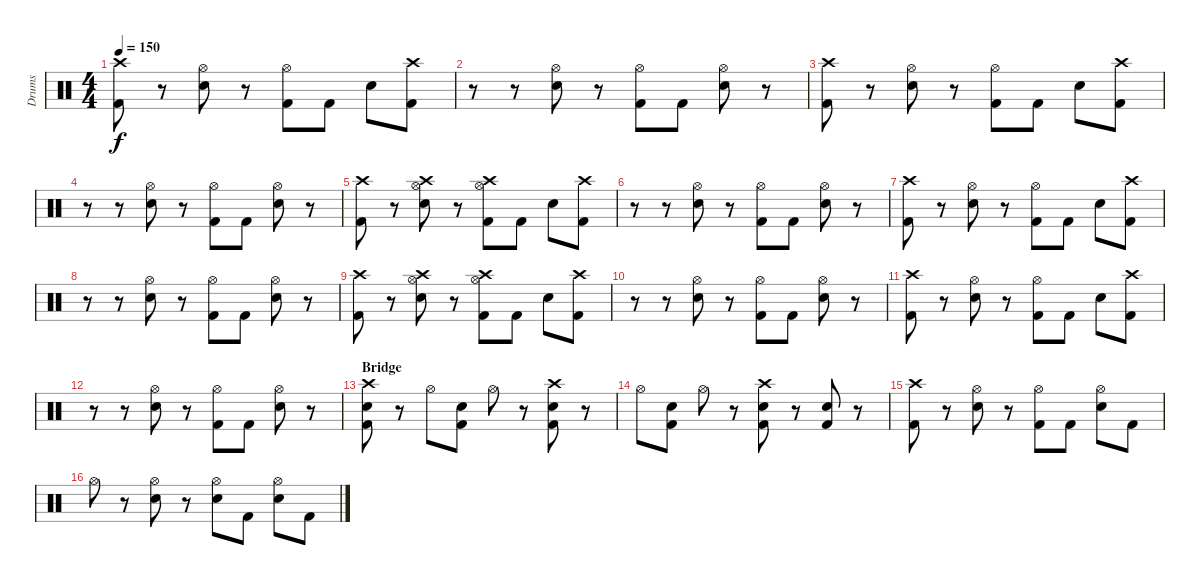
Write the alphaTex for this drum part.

\track ("Drums" "Drums") {instrument percussion}
\staff {score}
\articulation defaults
\ts (4 4)
\tempo 150
\clef neutral
\ks c
("Crash high (hit)" "Kick (hit) 2").8{dy f} r.8 ("Hi-Hat (open)" "Electric Snare (hit)").8 r.8 ("Hi-Hat (open)" "Kick (hit) 2").8 "Kick (hit) 2".8 "Electric Snare (hit)".8 ("Crash high (hit)" "Kick (hit) 2").8 |
r.8 r.8 ("Hi-Hat (open)" "Electric Snare (hit)").8 r.8 ("Hi-Hat (open)" "Kick (hit) 2").8 "Kick (hit) 2".8 ("Hi-Hat (open)" "Electric Snare (hit)").8 r.8 |
("Crash high (hit)" "Kick (hit) 2").8 r.8 ("Hi-Hat (open)" "Electric Snare (hit)").8 r.8 ("Hi-Hat (open)" "Kick (hit) 2").8 "Kick (hit) 2".8 "Electric Snare (hit)".8 ("Crash high (hit)" "Kick (hit) 2").8 |
r.8 r.8 ("Hi-Hat (open)" "Electric Snare (hit)").8 r.8 ("Hi-Hat (open)" "Kick (hit) 2").8 "Kick (hit) 2".8 ("Hi-Hat (open)" "Electric Snare (hit)").8 r.8 |
("Crash high (hit)" "Kick (hit) 2").8 r.8 ("Crash high (hit)" "Hi-Hat (open)" "Electric Snare (hit)").8 r.8 ("Crash high (hit)" "Hi-Hat (open)" "Kick (hit) 2").8 "Kick (hit) 2".8 "Electric Snare (hit)".8 ("Crash high (hit)" "Kick (hit) 2").8 |
r.8 r.8 ("Hi-Hat (open)" "Electric Snare (hit)").8 r.8 ("Hi-Hat (open)" "Kick (hit) 2").8 "Kick (hit) 2".8 ("Hi-Hat (open)" "Electric Snare (hit)").8 r.8 |
("Crash high (hit)" "Kick (hit) 2").8 r.8 ("Hi-Hat (open)" "Electric Snare (hit)").8 r.8 ("Hi-Hat (open)" "Kick (hit) 2").8 "Kick (hit) 2".8 "Electric Snare (hit)".8 ("Crash high (hit)" "Kick (hit) 2").8 |
r.8 r.8 ("Hi-Hat (open)" "Electric Snare (hit)").8 r.8 ("Hi-Hat (open)" "Kick (hit) 2").8 "Kick (hit) 2".8 ("Hi-Hat (open)" "Electric Snare (hit)").8 r.8 |
("Crash high (hit)" "Kick (hit) 2").8 r.8 ("Crash high (hit)" "Hi-Hat (open)" "Electric Snare (hit)").8 r.8 ("Crash high (hit)" "Hi-Hat (open)" "Kick (hit) 2").8 "Kick (hit) 2".8 "Electric Snare (hit)".8 ("Crash high (hit)" "Kick (hit) 2").8 |
r.8 r.8 ("Hi-Hat (open)" "Electric Snare (hit)").8 r.8 ("Hi-Hat (open)" "Kick (hit) 2").8 "Kick (hit) 2".8 ("Hi-Hat (open)" "Electric Snare (hit)").8 r.8 |
("Crash high (hit)" "Kick (hit) 2").8 r.8 ("Hi-Hat (open)" "Electric Snare (hit)").8 r.8 ("Hi-Hat (open)" "Kick (hit) 2").8 "Kick (hit) 2".8 "Electric Snare (hit)".8 ("Crash high (hit)" "Kick (hit) 2").8 |
r.8 r.8 ("Hi-Hat (open)" "Electric Snare (hit)").8 r.8 ("Hi-Hat (open)" "Kick (hit) 2").8 "Kick (hit) 2".8 ("Hi-Hat (open)" "Electric Snare (hit)").8 r.8 |
\section ("" "Bridge")
("Crash high (hit)" "Electric Snare (hit)" "Kick (hit) 2").8 r.8 "Hi-Hat (open)".8 ("Electric Snare (hit)" "Kick (hit) 2").8 "Hi-Hat (open)".8 r.8 ("Crash high (hit)" "Electric Snare (hit)" "Kick (hit) 2").8 r.8 |
"Hi-Hat (open)".8 ("Electric Snare (hit)" "Kick (hit) 2").8 "Hi-Hat (open)".8 r.8 ("Crash high (hit)" "Electric Snare (hit)" "Kick (hit) 2").8 r.8 ("Electric Snare (hit)" "Kick (hit) 2").8 r.8 |
("Crash high (hit)" "Kick (hit) 2").8 r.8 ("Hi-Hat (open)" "Electric Snare (hit)").8 r.8 ("Hi-Hat (open)" "Kick (hit) 2").8 "Kick (hit) 2".8 ("Hi-Hat (open)" "Electric Snare (hit)").8 "Kick (hit) 2".8 |
"Hi-Hat (open)".8 r.8 ("Hi-Hat (open)" "Electric Snare (hit)").8 r.8 ("Hi-Hat (open)" "Electric Snare (hit)").8 "Kick (hit) 2".8 ("Hi-Hat (open)" "Electric Snare (hit)").8 "Kick (hit) 2".8
